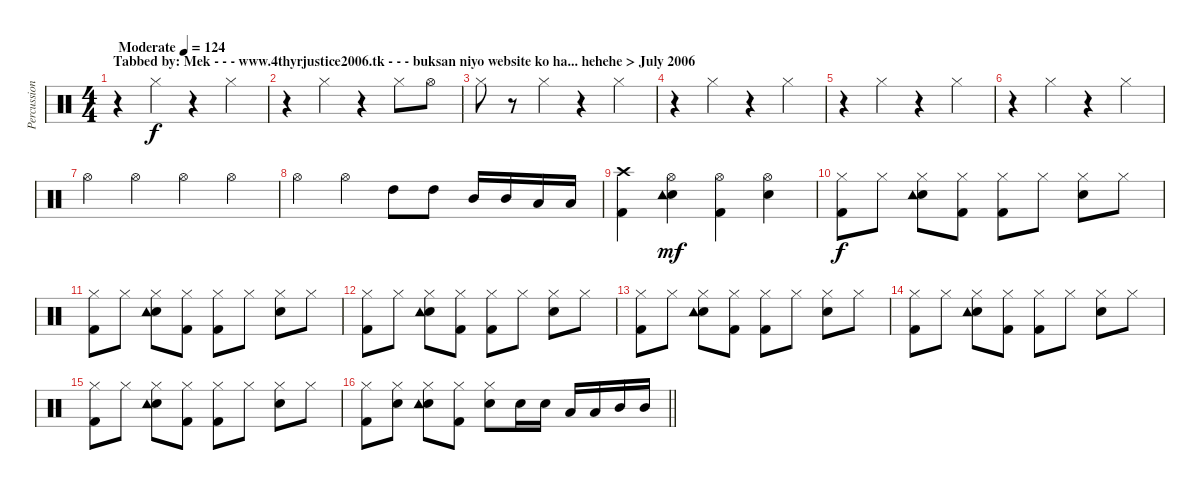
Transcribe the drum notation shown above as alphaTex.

\track ("Percussion" "Percussion") {instrument percussion}
\staff {score}
\articulation defaults
\ts (4 4)
\section ("" "Tabbed by: Mek - - - www.4thyrjustice2006.tk - - - buksan niyo website ko ha... hehehe > July 2006")
\tempo (124 "Moderate")
\clef neutral
\ks c
r.4{dy f} "Hi-Hat (closed)".4 r.4 "Hi-Hat (closed)".4 |
r.4 "Hi-Hat (closed)".4 r.4 "Hi-Hat (closed)".8 "Hi-Hat (open)".8 |
"Hi-Hat (closed)".8 r.8 "Hi-Hat (closed)".4 r.4 "Hi-Hat (closed)".4 |
r.4 "Hi-Hat (closed)".4 r.4 "Hi-Hat (closed)".4 |
r.4 "Hi-Hat (closed)".4 r.4 "Hi-Hat (closed)".4 |
r.4 "Hi-Hat (closed)".4 r.4 "Hi-Hat (closed)".4 |
"Hi-Hat (open)".4 "Hi-Hat (open)".4 "Hi-Hat (open)".4 "Hi-Hat (open)".4 |
"Hi-Hat (open)".4 "Hi-Hat (open)".4 "High Tom (hit)".8 "High Tom (hit)".8 "Mid Tom (hit)".16 "Mid Tom (hit)".16 "Low Tom (hit)".16 "Low Tom (hit)".16 |
("Kick (hit) 2" "Crash high (hit)").4 ("Hi-Hat (open)" "Electric Snare (hit)" "Tambourine (hit)").4{dy mf} ("Hi-Hat (open)" "Kick (hit) 2").4 ("Hi-Hat (open)" "Electric Snare (hit)").4 |
("Hi-Hat (closed)" "Kick (hit) 2").8{dy f} "Hi-Hat (closed)".8 ("Hi-Hat (closed)" "Electric Snare (hit)" "Tambourine (hit)").8 ("Hi-Hat (closed)" "Kick (hit) 2").8 ("Hi-Hat (closed)" "Kick (hit) 2").8 "Hi-Hat (closed)".8 ("Hi-Hat (closed)" "Electric Snare (hit)").8 "Hi-Hat (closed)".8 |
("Hi-Hat (closed)" "Kick (hit) 2").8 "Hi-Hat (closed)".8 ("Hi-Hat (closed)" "Electric Snare (hit)" "Tambourine (hit)").8 ("Hi-Hat (closed)" "Kick (hit) 2").8 ("Hi-Hat (closed)" "Kick (hit) 2").8 "Hi-Hat (closed)".8 ("Hi-Hat (closed)" "Electric Snare (hit)").8 "Hi-Hat (closed)".8 |
("Hi-Hat (closed)" "Kick (hit) 2").8 "Hi-Hat (closed)".8 ("Hi-Hat (closed)" "Electric Snare (hit)" "Tambourine (hit)").8 ("Hi-Hat (closed)" "Kick (hit) 2").8 ("Hi-Hat (closed)" "Kick (hit) 2").8 "Hi-Hat (closed)".8 ("Hi-Hat (closed)" "Electric Snare (hit)").8 "Hi-Hat (closed)".8 |
("Hi-Hat (closed)" "Kick (hit) 2").8 "Hi-Hat (closed)".8 ("Hi-Hat (closed)" "Electric Snare (hit)" "Tambourine (hit)").8 ("Hi-Hat (closed)" "Kick (hit) 2").8 ("Hi-Hat (closed)" "Kick (hit) 2").8 "Hi-Hat (closed)".8 ("Hi-Hat (closed)" "Electric Snare (hit)").8 "Hi-Hat (closed)".8 |
("Hi-Hat (closed)" "Kick (hit) 2").8 "Hi-Hat (closed)".8 ("Hi-Hat (closed)" "Electric Snare (hit)" "Tambourine (hit)").8 ("Hi-Hat (closed)" "Kick (hit) 2").8 ("Hi-Hat (closed)" "Kick (hit) 2").8 "Hi-Hat (closed)".8 ("Hi-Hat (closed)" "Electric Snare (hit)").8 "Hi-Hat (closed)".8 |
("Hi-Hat (closed)" "Kick (hit) 2").8 "Hi-Hat (closed)".8 ("Hi-Hat (closed)" "Electric Snare (hit)" "Tambourine (hit)").8 ("Hi-Hat (closed)" "Kick (hit) 2").8 ("Hi-Hat (closed)" "Kick (hit) 2").8 "Hi-Hat (closed)".8 ("Hi-Hat (closed)" "Electric Snare (hit)").8 "Hi-Hat (closed)".8 |
\barLineRight lightlight
("Hi-Hat (closed)" "Kick (hit) 2").8 ("Hi-Hat (closed)" "Electric Snare (hit)").8 ("Hi-Hat (closed)" "Electric Snare (hit)" "Tambourine (hit)").8 ("Hi-Hat (closed)" "Kick (hit) 2").8 ("Hi-Hat (closed)" "Electric Snare (hit)").8 "Electric Snare (hit)".16 "Electric Snare (hit)".16 "Low Tom (hit)".16 "Low Tom (hit)".16 "Mid Tom (hit)".16 "Mid Tom (hit)".16
